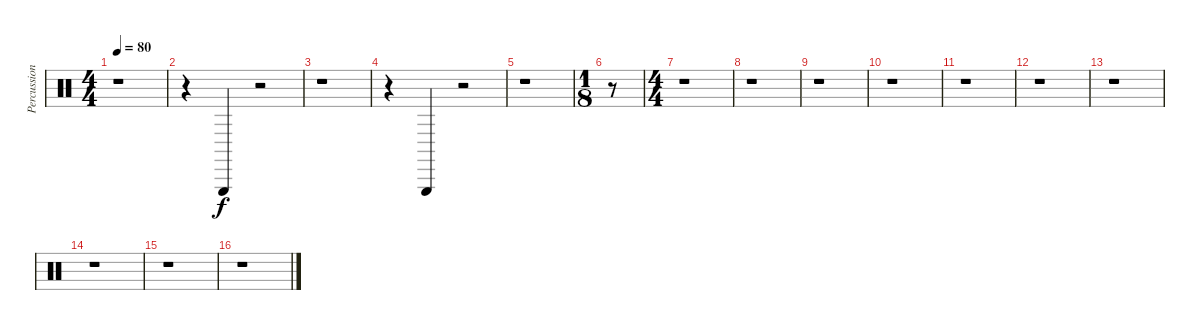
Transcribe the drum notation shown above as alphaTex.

\track ("Percussions" "Percussion") {instrument percussion}
\staff {score}
\articulation defaults
\ts (4 4)
\tempo 80
\clef neutral
\ks c
r.1{dy f} |
r.4 "Triangle (hit)".4 r.2 |
r.1 |
r.4 "Triangle (hit)".4 r.2 |
r.1 |
\ts (1 8)
r.8 |
\ts (4 4)
r.1 |
r.1 |
r.1 |
r.1 |
r.1 |
r.1 |
r.1 |
r.1 |
r.1 |
r.1
